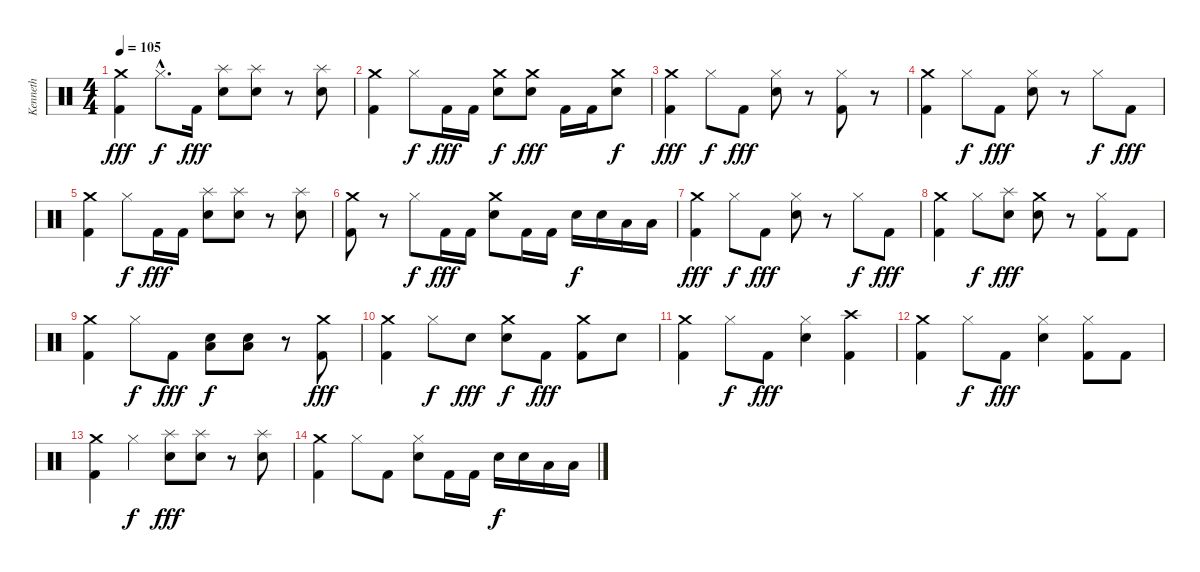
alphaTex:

\track ("Kenneth" "Kenneth") {instrument percussion}
\staff {score}
\articulation defaults
\ts (4 4)
\tempo 105
\clef neutral
\ks c
("Crash medium (hit)" "Kick (hit) 2").4{dy fff} "Hi-Hat (closed)"{hac}.8{d dy f} "Kick (hit) 2".16{dy fff} ("Splash (hit)" "Electric Snare (hit)").8 ("Splash (hit)" "Electric Snare (hit)").8 r.8 ("Splash (hit)" "Electric Snare (hit)").8 |
("Crash medium (hit)" "Kick (hit) 2").4 "Hi-Hat (closed)".8{dy f} "Kick (hit) 2".16{dy fff} "Kick (hit) 2".16 ("Crash medium (hit)" "Electric Snare (hit)").8{dy f} ("Crash medium (hit)" "Electric Snare (hit)").8{dy fff} "Kick (hit) 2".16 "Kick (hit) 2".16 ("Crash medium (hit)" "Electric Snare (hit)").8{dy f} |
("Crash medium (hit)" "Kick (hit) 2").4{dy fff} "Hi-Hat (closed)".8{dy f} "Kick (hit) 2".8{dy fff} ("Hi-Hat (closed)" "Electric Snare (hit)").8 r.8 ("Hi-Hat (closed)" "Kick (hit) 2").8 r.8 |
("Crash medium (hit)" "Kick (hit) 2").4 "Hi-Hat (closed)".8{dy f} "Kick (hit) 2".8{dy fff} ("Hi-Hat (closed)" "Electric Snare (hit)").8 r.8 "Hi-Hat (closed)".8{dy f} "Kick (hit) 2".8{dy fff} |
("Crash medium (hit)" "Kick (hit) 2").4 "Hi-Hat (closed)".8{dy f} "Kick (hit) 2".16{dy fff} "Kick (hit) 2".16 ("Splash (hit)" "Electric Snare (hit)").8 ("Splash (hit)" "Electric Snare (hit)").8 r.8 ("Splash (hit)" "Electric Snare (hit)").8 |
("Crash medium (hit)" "Kick (hit) 2").8 r.8 "Hi-Hat (closed)".8{dy f} "Kick (hit) 2".16{dy fff} "Kick (hit) 2".16 ("Crash medium (hit)" "Electric Snare (hit)").8 "Kick (hit) 2".16 "Kick (hit) 2".16 "Electric Snare (hit)".16{dy f} "Electric Snare (hit)".16 "Low Tom (hit)".16 "Low Tom (hit)".16 |
("Crash medium (hit)" "Kick (hit) 2").4{dy fff} "Hi-Hat (closed)".8{dy f} "Kick (hit) 2".8{dy fff} ("Hi-Hat (closed)" "Electric Snare (hit)").8 r.8 "Hi-Hat (closed)".8{dy f} "Kick (hit) 2".8{dy fff} |
("Crash medium (hit)" "Kick (hit) 2").4 "Hi-Hat (closed)".8{dy f} ("Splash (hit)" "Electric Snare (hit)").8{dy fff} ("Crash medium (hit)" "Electric Snare (hit)").8 r.8 ("Hi-Hat (closed)" "Kick (hit) 2").8 "Kick (hit) 2".8 |
("Crash medium (hit)" "Kick (hit) 2").4 "Hi-Hat (closed)".8{dy f} "Kick (hit) 2".8{dy fff} ("Low Tom (hit)" "Electric Snare (hit)").8{dy f} ("Low Tom (hit)" "Electric Snare (hit)").8 r.8 ("Crash medium (hit)" "Kick (hit) 2").8{dy fff} |
("Crash medium (hit)" "Kick (hit) 2").4 "Hi-Hat (closed)".8{dy f} "Electric Snare (hit)".8{dy fff} ("Crash medium (hit)" "Electric Snare (hit)").8{dy f} "Kick (hit) 2".8{dy fff} ("Crash medium (hit)" "Kick (hit) 2").8 "Electric Snare (hit)".8 |
("Crash medium (hit)" "Kick (hit) 2").4 "Hi-Hat (closed)".8{dy f} "Kick (hit) 2".8{dy fff} ("Hi-Hat (closed)" "Electric Snare (hit)").4 ("Crash high (hit)" "Kick (hit) 2").4 |
("Crash medium (hit)" "Kick (hit) 2").4 "Hi-Hat (closed)".8{dy f} "Kick (hit) 2".8{dy fff} ("Hi-Hat (closed)" "Electric Snare (hit)").4 ("Hi-Hat (closed)" "Kick (hit) 2").8 "Kick (hit) 2".8 |
("Crash medium (hit)" "Kick (hit) 2").4 "Hi-Hat (closed)".4{dy f} ("Splash (hit)" "Electric Snare (hit)").8{dy fff} ("Splash (hit)" "Electric Snare (hit)").8 r.8 ("Splash (hit)" "Electric Snare (hit)").8 |
("Crash medium (hit)" "Kick (hit) 2").4 "Hi-Hat (closed)".8 "Kick (hit) 2".8 ("Hi-Hat (closed)" "Electric Snare (hit)").8 "Kick (hit) 2".16 "Kick (hit) 2".16 "Electric Snare (hit)".16{dy f} "Electric Snare (hit)".16 "Low Tom (hit)".16 "Low Tom (hit)".16
